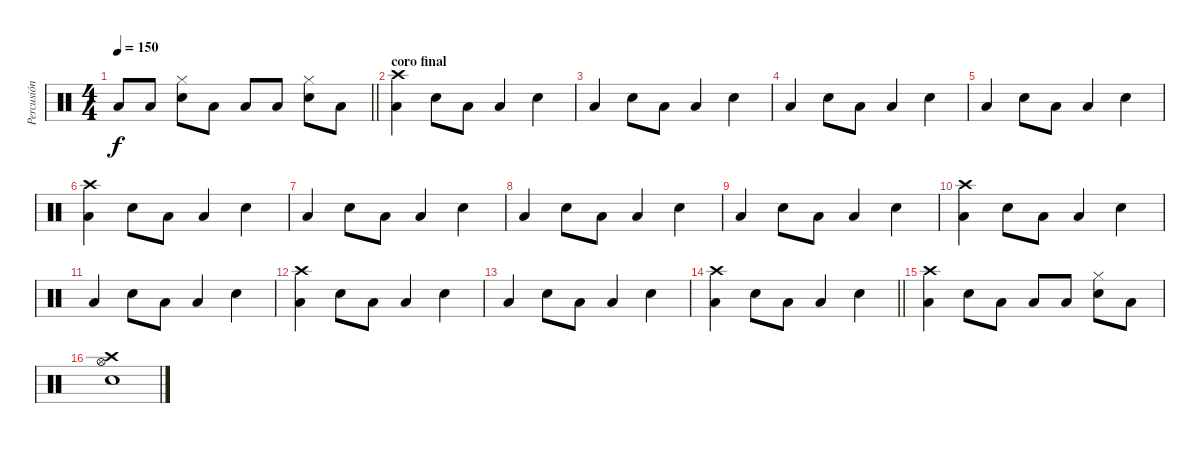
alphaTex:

\track ("Percusión" "Percusión") {instrument percussion}
\staff {score}
\articulation defaults
\ts (4 4)
\tempo 150
\clef neutral
\barLineRight lightlight
\ks c "Low Floor Tom (hit)".8{dy f} "Low Floor Tom (hit)".8
("Electric Snare (hit)" "Hi-Hat (closed)").8 "Low Floor Tom (hit)".8 "Low Floor Tom (hit)".8 "Low Floor Tom (hit)".8 ("Electric Snare (hit)" "Hi-Hat (closed)").8 "Low Floor Tom (hit)".8 |
\section ("" "coro final")
("Low Floor Tom (hit)" "Crash high (hit)").4 "Electric Snare (hit)".8 "Low Floor Tom (hit)".8 "Low Floor Tom (hit)".4 "Electric Snare (hit)".4 |
"Low Floor Tom (hit)".4 "Electric Snare (hit)".8 "Low Floor Tom (hit)".8 "Low Floor Tom (hit)".4 "Electric Snare (hit)".4 |
"Low Floor Tom (hit)".4 "Electric Snare (hit)".8 "Low Floor Tom (hit)".8 "Low Floor Tom (hit)".4 "Electric Snare (hit)".4 |
"Low Floor Tom (hit)".4 "Electric Snare (hit)".8 "Low Floor Tom (hit)".8 "Low Floor Tom (hit)".4 "Electric Snare (hit)".4 |
("Low Floor Tom (hit)" "Crash high (hit)").4 "Electric Snare (hit)".8 "Low Floor Tom (hit)".8 "Low Floor Tom (hit)".4 "Electric Snare (hit)".4 |
"Low Floor Tom (hit)".4 "Electric Snare (hit)".8 "Low Floor Tom (hit)".8 "Low Floor Tom (hit)".4 "Electric Snare (hit)".4 |
"Low Floor Tom (hit)".4 "Electric Snare (hit)".8 "Low Floor Tom (hit)".8 "Low Floor Tom (hit)".4 "Electric Snare (hit)".4 |
"Low Floor Tom (hit)".4 "Electric Snare (hit)".8 "Low Floor Tom (hit)".8 "Low Floor Tom (hit)".4 "Electric Snare (hit)".4 |
("Low Floor Tom (hit)" "Crash high (hit)").4 "Electric Snare (hit)".8 "Low Floor Tom (hit)".8 "Low Floor Tom (hit)".4 "Electric Snare (hit)".4 |
"Low Floor Tom (hit)".4 "Electric Snare (hit)".8 "Low Floor Tom (hit)".8 "Low Floor Tom (hit)".4 "Electric Snare (hit)".4 |
("Low Floor Tom (hit)" "Crash high (hit)").4 "Electric Snare (hit)".8 "Low Floor Tom (hit)".8 "Low Floor Tom (hit)".4 "Electric Snare (hit)".4 |
"Low Floor Tom (hit)".4 "Electric Snare (hit)".8 "Low Floor Tom (hit)".8 "Low Floor Tom (hit)".4 "Electric Snare (hit)".4 |
\barLineRight lightlight
("Low Floor Tom (hit)" "Crash high (hit)").4 "Electric Snare (hit)".8 "Low Floor Tom (hit)".8 "Low Floor Tom (hit)".4 "Electric Snare (hit)".4 |
("Low Floor Tom (hit)" "Crash high (hit)").4 "Electric Snare (hit)".8 "Low Floor Tom (hit)".8 "Low Floor Tom (hit)".8 "Low Floor Tom (hit)".8 ("Electric Snare (hit)" "Hi-Hat (closed)").8 "Low Floor Tom (hit)".8 |
("Electric Snare (hit)" "Crash high (hit)" "Hi-Hat (open)").1
